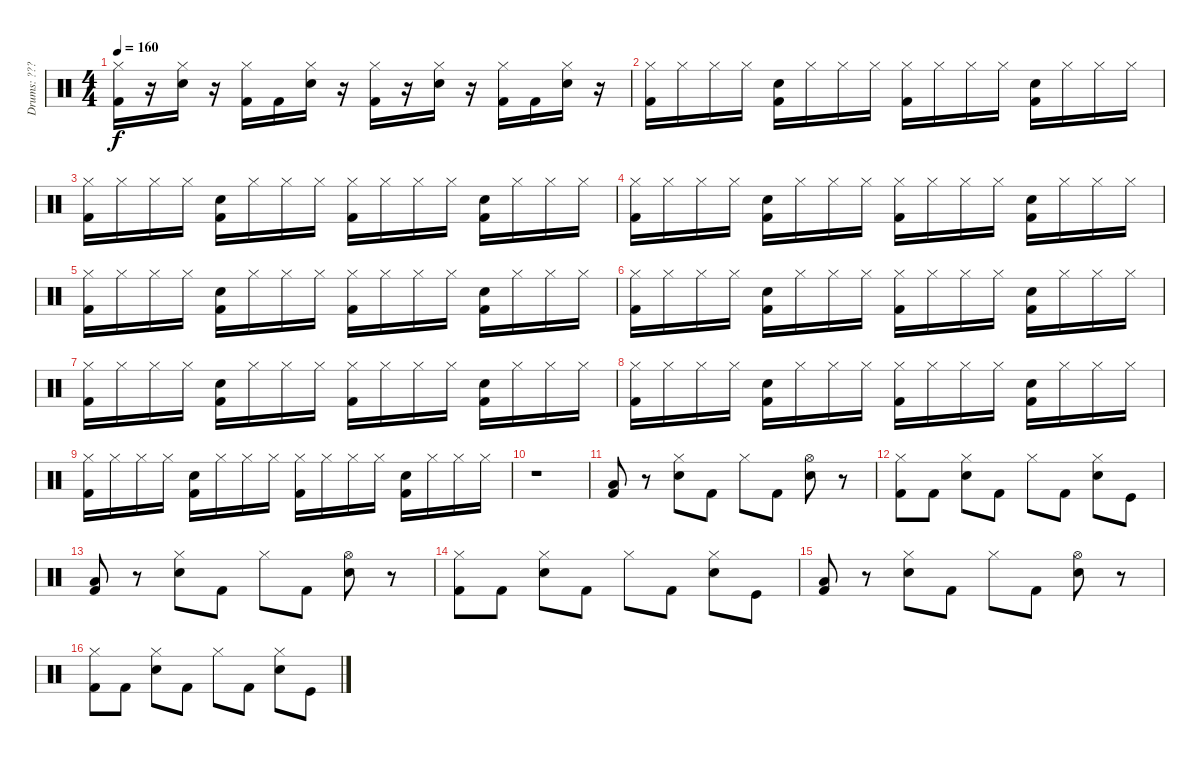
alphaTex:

\track ("Drums: ???" "Drums: ???") {instrument percussion}
\staff {score}
\articulation defaults
\ts (4 4)
\tempo 160
\clef neutral
\ks c
("Kick (hit) 2" "Hi-Hat (closed)").16{dy f} r.16 ("Snare (hit) 2" "Hi-Hat (closed)").16 r.16 ("Kick (hit) 2" "Hi-Hat (closed)").16 "Kick (hit) 2".16 ("Snare (hit) 2" "Hi-Hat (closed)").16 r.16 ("Kick (hit) 2" "Hi-Hat (closed)").16 r.16 ("Snare (hit) 2" "Hi-Hat (closed)").16 r.16 ("Kick (hit) 2" "Hi-Hat (closed)").16 "Kick (hit) 2".16 ("Snare (hit) 2" "Hi-Hat (closed)").16 r.16 |
("Hi-Hat (closed)" "Kick (hit) 2").16 "Hi-Hat (closed)".16 "Hi-Hat (closed)".16 "Hi-Hat (closed)".16 ("Snare (hit) 2" "Kick (hit) 2").16 "Hi-Hat (closed)".16 "Hi-Hat (closed)".16 "Hi-Hat (closed)".16 ("Hi-Hat (closed)" "Kick (hit) 2").16 "Hi-Hat (closed)".16 "Hi-Hat (closed)".16 "Hi-Hat (closed)".16 ("Snare (hit) 2" "Kick (hit) 2").16 "Hi-Hat (closed)".16 "Hi-Hat (closed)".16 "Hi-Hat (closed)".16 |
("Hi-Hat (closed)" "Kick (hit) 2").16 "Hi-Hat (closed)".16 "Hi-Hat (closed)".16 "Hi-Hat (closed)".16 ("Snare (hit) 2" "Kick (hit) 2").16 "Hi-Hat (closed)".16 "Hi-Hat (closed)".16 "Hi-Hat (closed)".16 ("Hi-Hat (closed)" "Kick (hit) 2").16 "Hi-Hat (closed)".16 "Hi-Hat (closed)".16 "Hi-Hat (closed)".16 ("Snare (hit) 2" "Kick (hit) 2").16 "Hi-Hat (closed)".16 "Hi-Hat (closed)".16 "Hi-Hat (closed)".16 |
("Hi-Hat (closed)" "Kick (hit) 2").16 "Hi-Hat (closed)".16 "Hi-Hat (closed)".16 "Hi-Hat (closed)".16 ("Snare (hit) 2" "Kick (hit) 2").16 "Hi-Hat (closed)".16 "Hi-Hat (closed)".16 "Hi-Hat (closed)".16 ("Hi-Hat (closed)" "Kick (hit) 2").16 "Hi-Hat (closed)".16 "Hi-Hat (closed)".16 "Hi-Hat (closed)".16 ("Snare (hit) 2" "Kick (hit) 2").16 "Hi-Hat (closed)".16 "Hi-Hat (closed)".16 "Hi-Hat (closed)".16 |
("Hi-Hat (closed)" "Kick (hit) 2").16 "Hi-Hat (closed)".16 "Hi-Hat (closed)".16 "Hi-Hat (closed)".16 ("Snare (hit) 2" "Kick (hit) 2").16 "Hi-Hat (closed)".16 "Hi-Hat (closed)".16 "Hi-Hat (closed)".16 ("Hi-Hat (closed)" "Kick (hit) 2").16 "Hi-Hat (closed)".16 "Hi-Hat (closed)".16 "Hi-Hat (closed)".16 ("Snare (hit) 2" "Kick (hit) 2").16 "Hi-Hat (closed)".16 "Hi-Hat (closed)".16 "Hi-Hat (closed)".16 |
("Hi-Hat (closed)" "Kick (hit) 2").16 "Hi-Hat (closed)".16 "Hi-Hat (closed)".16 "Hi-Hat (closed)".16 ("Snare (hit) 2" "Kick (hit) 2").16 "Hi-Hat (closed)".16 "Hi-Hat (closed)".16 "Hi-Hat (closed)".16 ("Hi-Hat (closed)" "Kick (hit) 2").16 "Hi-Hat (closed)".16 "Hi-Hat (closed)".16 "Hi-Hat (closed)".16 ("Snare (hit) 2" "Kick (hit) 2").16 "Hi-Hat (closed)".16 "Hi-Hat (closed)".16 "Hi-Hat (closed)".16 |
("Hi-Hat (closed)" "Kick (hit) 2").16 "Hi-Hat (closed)".16 "Hi-Hat (closed)".16 "Hi-Hat (closed)".16 ("Snare (hit) 2" "Kick (hit) 2").16 "Hi-Hat (closed)".16 "Hi-Hat (closed)".16 "Hi-Hat (closed)".16 ("Hi-Hat (closed)" "Kick (hit) 2").16 "Hi-Hat (closed)".16 "Hi-Hat (closed)".16 "Hi-Hat (closed)".16 ("Snare (hit) 2" "Kick (hit) 2").16 "Hi-Hat (closed)".16 "Hi-Hat (closed)".16 "Hi-Hat (closed)".16 |
("Hi-Hat (closed)" "Kick (hit) 2").16 "Hi-Hat (closed)".16 "Hi-Hat (closed)".16 "Hi-Hat (closed)".16 ("Snare (hit) 2" "Kick (hit) 2").16 "Hi-Hat (closed)".16 "Hi-Hat (closed)".16 "Hi-Hat (closed)".16 ("Hi-Hat (closed)" "Kick (hit) 2").16 "Hi-Hat (closed)".16 "Hi-Hat (closed)".16 "Hi-Hat (closed)".16 ("Snare (hit) 2" "Kick (hit) 2").16 "Hi-Hat (closed)".16 "Hi-Hat (closed)".16 "Hi-Hat (closed)".16 |
("Hi-Hat (closed)" "Kick (hit) 2").16 "Hi-Hat (closed)".16 "Hi-Hat (closed)".16 "Hi-Hat (closed)".16 ("Snare (hit) 2" "Kick (hit) 2").16 "Hi-Hat (closed)".16 "Hi-Hat (closed)".16 "Hi-Hat (closed)".16 ("Hi-Hat (closed)" "Kick (hit) 2").16 "Hi-Hat (closed)".16 "Hi-Hat (closed)".16 "Hi-Hat (closed)".16 ("Snare (hit) 2" "Kick (hit) 2").16 "Hi-Hat (closed)".16 "Hi-Hat (closed)".16 "Hi-Hat (closed)".16 |
r.1 |
("Low Floor Tom (hit)" "Kick (hit) 2").8 r.8 ("Hi-Hat (closed)" "Snare (hit) 2").8 "Kick (hit) 2".8 "Hi-Hat (closed)".8 "Kick (hit) 2".8 ("Hi-Hat (open)" "Snare (hit) 2").8 r.8 |
("Hi-Hat (closed)" "Kick (hit) 2").8 "Kick (hit) 2".8 ("Hi-Hat (closed)" "Snare (hit) 2").8 "Kick (hit) 2".8 "Hi-Hat (closed)".8 "Kick (hit) 2".8 ("Hi-Hat (closed)" "Snare (hit) 2").8 "Kick (hit)".8 |
("Low Floor Tom (hit)" "Kick (hit) 2").8 r.8 ("Hi-Hat (closed)" "Snare (hit) 2").8 "Kick (hit) 2".8 "Hi-Hat (closed)".8 "Kick (hit) 2".8 ("Hi-Hat (open)" "Snare (hit) 2").8 r.8 |
("Hi-Hat (closed)" "Kick (hit) 2").8 "Kick (hit) 2".8 ("Hi-Hat (closed)" "Snare (hit) 2").8 "Kick (hit) 2".8 "Hi-Hat (closed)".8 "Kick (hit) 2".8 ("Hi-Hat (closed)" "Snare (hit) 2").8 "Kick (hit)".8 |
("Low Floor Tom (hit)" "Kick (hit) 2").8 r.8 ("Hi-Hat (closed)" "Snare (hit) 2").8 "Kick (hit) 2".8 "Hi-Hat (closed)".8 "Kick (hit) 2".8 ("Hi-Hat (open)" "Snare (hit) 2").8 r.8 |
("Hi-Hat (closed)" "Kick (hit) 2").8 "Kick (hit) 2".8 ("Hi-Hat (closed)" "Snare (hit) 2").8 "Kick (hit) 2".8 "Hi-Hat (closed)".8 "Kick (hit) 2".8 ("Hi-Hat (closed)" "Snare (hit) 2").8 "Kick (hit)".8
